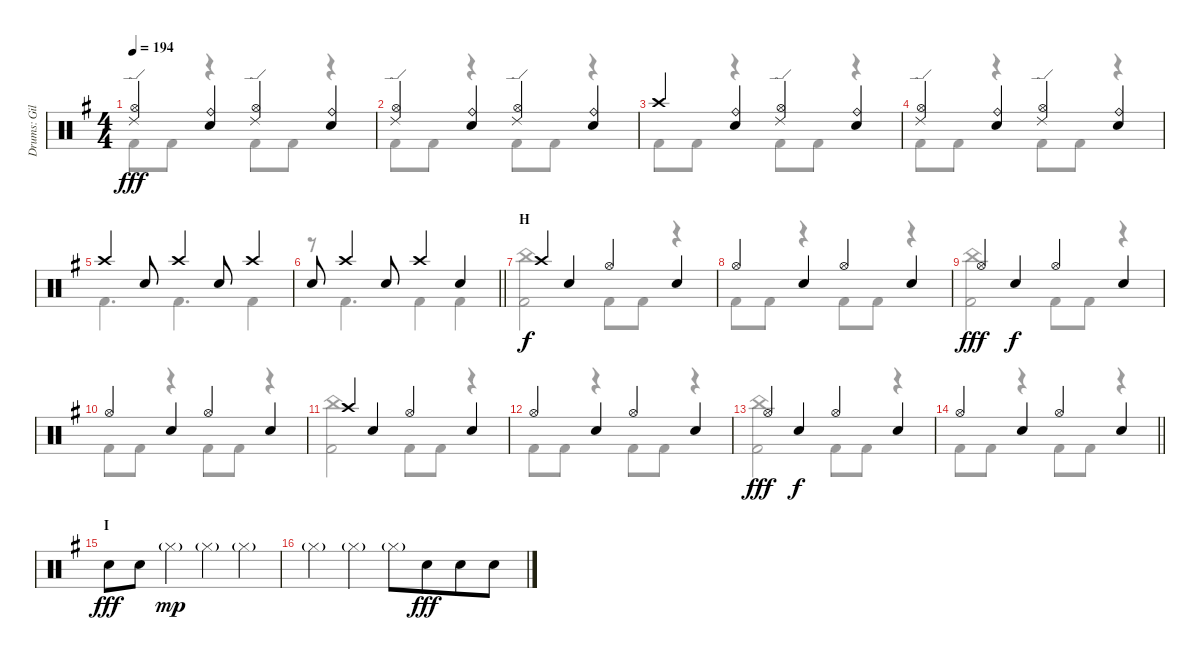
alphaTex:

\track ("Drums: Gil" "Drums: Gil") {instrument percussion}
\staff {score}
\articulation defaults
\voice
\ts (4 4)
\tempo 194
\clef neutral
\ks g
("Ride (edge) 2" "Hi-Hat (open)").4{dy fff} ("Ride (bell)" "Snare (hit) 2").4 ("Ride (edge) 2" "Hi-Hat (open)").4 ("Ride (bell)" "Snare (hit) 2").4 |
("Ride (edge) 2" "Hi-Hat (open)").4 ("Ride (bell)" "Snare (hit) 2").4 ("Ride (edge) 2" "Hi-Hat (open)").4 ("Ride (bell)" "Snare (hit) 2").4 |
"Crash high (hit)".4 ("Ride (bell)" "Snare (hit) 2").4 ("Ride (edge) 2" "Hi-Hat (open)").4 ("Ride (bell)" "Snare (hit) 2").4 |
("Ride (edge) 2" "Hi-Hat (open)").4 ("Ride (bell)" "Snare (hit) 2").4 ("Ride (edge) 2" "Hi-Hat (open)").4 ("Ride (bell)" "Snare (hit) 2").4 |
"Crash high (hit)".4 "Snare (hit) 2".8 "Crash high (hit)".4 "Snare (hit) 2".8 "Crash high (hit)".4 |
\barLineRight lightlight "Snare (hit) 2".8 "Crash high (hit)".4 "Snare (hit) 2".8 "Crash high (hit)".4 "Snare (hit) 2".4
|
\section ("" "H")
"Crash high (hit)".4{dy f} "Snare (hit) 2".4 "Hi-Hat (open)".4 "Snare (hit) 2".4 |
"Hi-Hat (open)".4 "Snare (hit) 2".4 "Hi-Hat (open)".4 "Snare (hit) 2".4 |
"Hi-Hat (open)".4{dy fff} "Snare (hit) 2".4{dy f} "Hi-Hat (open)".4 "Snare (hit) 2".4 |
"Hi-Hat (open)".4 "Snare (hit) 2".4 "Hi-Hat (open)".4 "Snare (hit) 2".4 |
"Crash high (hit)".4 "Snare (hit) 2".4 "Hi-Hat (open)".4 "Snare (hit) 2".4 |
"Hi-Hat (open)".4 "Snare (hit) 2".4 "Hi-Hat (open)".4 "Snare (hit) 2".4 |
"Hi-Hat (open)".4{dy fff} "Snare (hit) 2".4{dy f} "Hi-Hat (open)".4 "Snare (hit) 2".4 |
\barLineRight lightlight "Hi-Hat (open)".4 "Snare (hit) 2".4 "Hi-Hat (open)".4 "Snare (hit) 2".4
|
\section ("" "I")
"Snare (hit) 2".8{dy fff} "Snare (hit) 2".8{beam merge} "Hi-Hat (closed)"{g}.4{dy mp} "Hi-Hat (closed)"{g}.4 "Hi-Hat (closed)"{g}.4 |
"Hi-Hat (closed)"{g}.4 "Hi-Hat (closed)"{g}.4{beam merge} "Hi-Hat (closed)"{g}.8 "Snare (hit) 2".8{dy fff beam merge} "Snare (hit) 2".8 "Snare (hit) 2".8
\voice
\clef neutral
\ottava regular
\simile none
\ks g "Kick (hit) 2".8{dy fff} "Kick (hit) 2".8
r.4 "Kick (hit) 2".8 "Kick (hit) 2".8 r.4 |
"Kick (hit) 2".8 "Kick (hit) 2".8 r.4 "Kick (hit) 2".8 "Kick (hit) 2".8 r.4 |
"Kick (hit) 2".8 "Kick (hit) 2".8 r.4 "Kick (hit) 2".8 "Kick (hit) 2".8 r.4 |
"Kick (hit) 2".8 "Kick (hit) 2".8 r.4 "Kick (hit) 2".8 "Kick (hit) 2".8 r.4 |
"Kick (hit) 2".4{d} "Kick (hit) 2".4{d} "Kick (hit) 2".4 |
\barLineRight lightlight
r.8 "Kick (hit) 2".4{d} "Kick (hit) 2".4 "Kick (hit) 2".4 |
("China (hit)" "Kick (hit) 2").2 "Kick (hit) 2".8 "Kick (hit) 2".8{beam merge} r.4 |
"Kick (hit) 2".8 "Kick (hit) 2".8 r.4 "Kick (hit) 2".8 "Kick (hit) 2".8 r.4 |
("China (hit)" "Kick (hit) 2").2 "Kick (hit) 2".8 "Kick (hit) 2".8{beam merge} r.4 |
"Kick (hit) 2".8 "Kick (hit) 2".8 r.4 "Kick (hit) 2".8 "Kick (hit) 2".8 r.4 |
("China (hit)" "Kick (hit) 2").2 "Kick (hit) 2".8 "Kick (hit) 2".8{beam merge} r.4 |
"Kick (hit) 2".8 "Kick (hit) 2".8 r.4 "Kick (hit) 2".8 "Kick (hit) 2".8 r.4 |
("China (hit)" "Kick (hit) 2").2 "Kick (hit) 2".8 "Kick (hit) 2".8{beam merge} r.4 |
\barLineRight lightlight "Kick (hit) 2".8 "Kick (hit) 2".8
r.4 "Kick (hit) 2".8 "Kick (hit) 2".8 r.4 |
|
